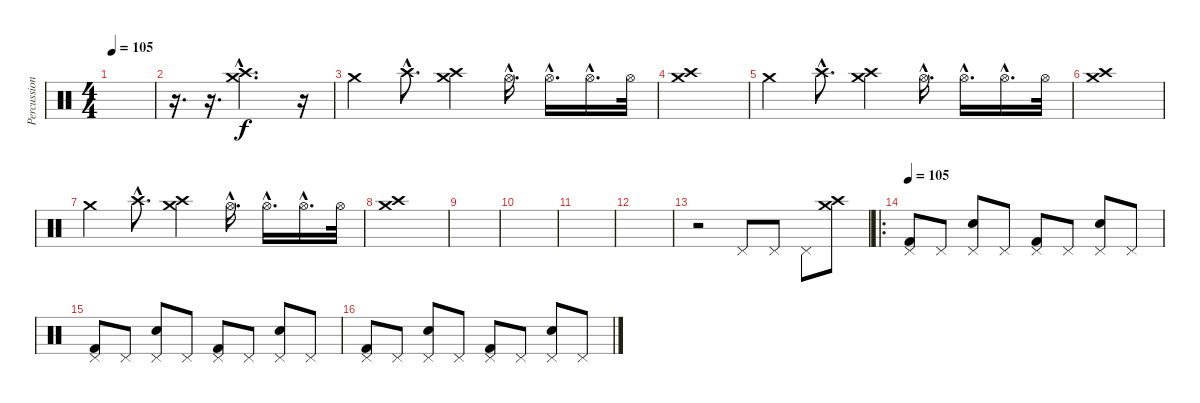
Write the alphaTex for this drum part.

\track ("Percussion" "Percussion") {instrument percussion}
\staff {score}
\articulation defaults
\ts (4 4)
\tempo 105
\tempo 123
\tempo 105
\clef neutral
\ks c
|
r.16{d} r.16{d} ("Crash medium (hit)"{hac} "Crash high (hit)"{hac}).2{d} r.16 |
"Crash medium (hit)".4 "Crash high (hit)"{hac}.8{d} ("Crash medium (hit)" "Crash high (hit)").4 "Hi-Hat (open)"{hac}.16{d} "Hi-Hat (open)"{hac}.16{d} "Hi-Hat (open)"{hac}.16{d} "Hi-Hat (open)".32 |
("Crash high (hit)" "Crash medium (hit)").1 |
"Crash medium (hit)".4 "Crash high (hit)"{hac}.8{d} ("Crash medium (hit)" "Crash high (hit)").4 "Hi-Hat (open)"{hac}.16{d} "Hi-Hat (open)"{hac}.16{d} "Hi-Hat (open)"{hac}.16{d} "Hi-Hat (open)".32 |
("Crash high (hit)" "Crash medium (hit)").1 |
"Crash medium (hit)".4 "Crash high (hit)"{hac}.8{d} ("Crash medium (hit)" "Crash high (hit)").4 "Hi-Hat (open)"{hac}.16{d} "Hi-Hat (open)"{hac}.16{d} "Hi-Hat (open)"{hac}.16{d} "Hi-Hat (open)".32 |
("Crash high (hit)" "Crash medium (hit)").1 |
|
|
|
|
r.2 "Pedal Hi-Hat (hit)".8 "Pedal Hi-Hat (hit)".8 "Pedal Hi-Hat (hit)".8 ("Crash medium (hit)" "Crash high (hit)").8 |
\ro
\tempo 105
("Pedal Hi-Hat (hit)" "Kick (hit) 2").8 "Pedal Hi-Hat (hit)".8 ("Pedal Hi-Hat (hit)" "Snare (hit) 2").8 "Pedal Hi-Hat (hit)".8 ("Pedal Hi-Hat (hit)" "Kick (hit) 2").8 "Pedal Hi-Hat (hit)".8 ("Pedal Hi-Hat (hit)" "Snare (hit) 2").8 "Pedal Hi-Hat (hit)".8 |
("Pedal Hi-Hat (hit)" "Kick (hit) 2").8 "Pedal Hi-Hat (hit)".8 ("Pedal Hi-Hat (hit)" "Snare (hit) 2").8 "Pedal Hi-Hat (hit)".8 ("Pedal Hi-Hat (hit)" "Kick (hit) 2").8 "Pedal Hi-Hat (hit)".8 ("Pedal Hi-Hat (hit)" "Snare (hit) 2").8 "Pedal Hi-Hat (hit)".8 |
("Pedal Hi-Hat (hit)" "Kick (hit) 2").8 "Pedal Hi-Hat (hit)".8 ("Pedal Hi-Hat (hit)" "Snare (hit) 2").8 "Pedal Hi-Hat (hit)".8 ("Pedal Hi-Hat (hit)" "Kick (hit) 2").8 "Pedal Hi-Hat (hit)".8 ("Pedal Hi-Hat (hit)" "Snare (hit) 2").8 "Pedal Hi-Hat (hit)".8
